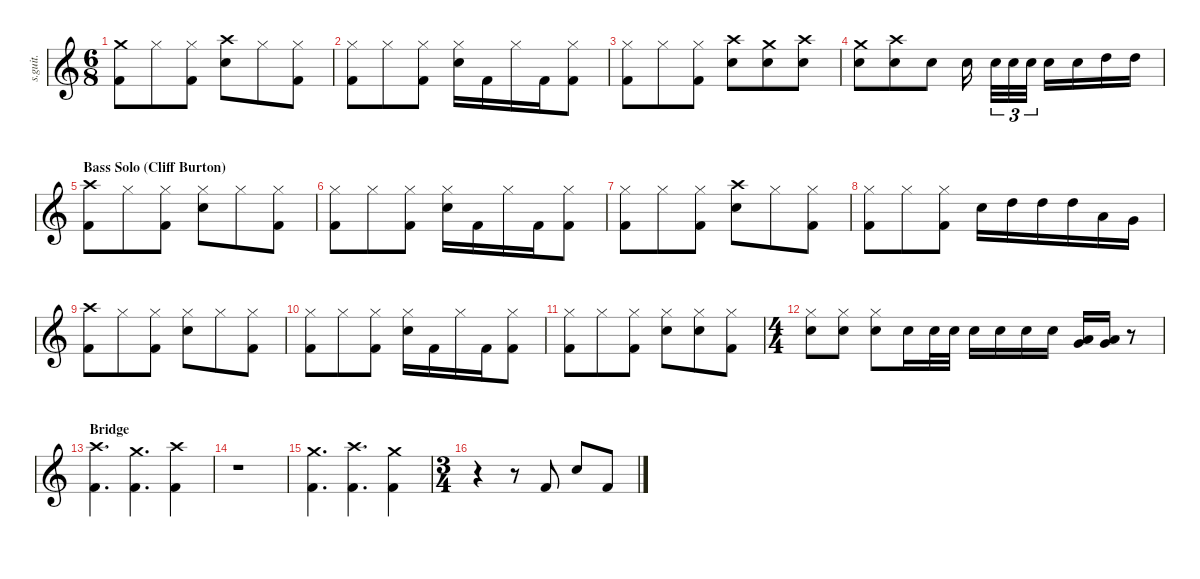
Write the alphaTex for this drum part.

\defaultSystemsLayout 4
\hideDynamics
\bracketExtendMode nobrackets
\track ("Drumkit" "s.guit.") {instrument percussion}
\staff {score}
\articulation defaults
\ts (6 8)
\tempo (78 hide)
\clef g2
\ks c
("Crash medium (hit)" "Kick (hit) 2").8{lyrics (0 "") lyrics (1 "") lyrics (2 "") lyrics (3 "") lyrics (4 "") dy f} "Hi-Hat (closed)".8{lyrics (0 "") lyrics (1 "") lyrics (2 "") lyrics (3 "") lyrics (4 "")} ("Hi-Hat (closed)" "Kick (hit) 2").8{lyrics (0 "") lyrics (1 "") lyrics (2 "") lyrics (3 "") lyrics (4 "")} ("Crash high (hit)" "Snare (hit) 2").8{lyrics (0 "") lyrics (1 "") lyrics (2 "") lyrics (3 "") lyrics (4 "")} "Hi-Hat (closed)".8{lyrics (0 "") lyrics (1 "") lyrics (2 "") lyrics (3 "") lyrics (4 "")} ("Hi-Hat (closed)" "Kick (hit) 2").8{lyrics (0 "") lyrics (1 "") lyrics (2 "") lyrics (3 "") lyrics (4 "")} |
("Hi-Hat (closed)" "Kick (hit) 2").8{lyrics (0 "") lyrics (1 "") lyrics (2 "") lyrics (3 "") lyrics (4 "")} "Hi-Hat (closed)".8{lyrics (0 "") lyrics (1 "") lyrics (2 "") lyrics (3 "") lyrics (4 "")} ("Hi-Hat (closed)" "Kick (hit) 2").8{lyrics (0 "") lyrics (1 "") lyrics (2 "") lyrics (3 "") lyrics (4 "")} ("Hi-Hat (closed)" "Snare (hit) 2").16{lyrics (0 "") lyrics (1 "") lyrics (2 "") lyrics (3 "") lyrics (4 "")} "Kick (hit) 2".16{lyrics (0 "") lyrics (1 "") lyrics (2 "") lyrics (3 "") lyrics (4 "")} "Hi-Hat (closed)".16{lyrics (0 "") lyrics (1 "") lyrics (2 "") lyrics (3 "") lyrics (4 "")} "Kick (hit) 2".16{lyrics (0 "") lyrics (1 "") lyrics (2 "") lyrics (3 "") lyrics (4 "")} ("Hi-Hat (closed)" "Kick (hit) 2").8{lyrics (0 "") lyrics (1 "") lyrics (2 "") lyrics (3 "") lyrics (4 "")} |
("Hi-Hat (closed)" "Kick (hit) 2").8{lyrics (0 "") lyrics (1 "") lyrics (2 "") lyrics (3 "") lyrics (4 "")} "Hi-Hat (closed)".8{lyrics (0 "") lyrics (1 "") lyrics (2 "") lyrics (3 "") lyrics (4 "")} ("Hi-Hat (closed)" "Kick (hit) 2").8{lyrics (0 "") lyrics (1 "") lyrics (2 "") lyrics (3 "") lyrics (4 "")} ("Crash high (hit)" "Snare (hit) 2").8{lyrics (0 "") lyrics (1 "") lyrics (2 "") lyrics (3 "") lyrics (4 "")} ("Crash medium (hit)" "Snare (hit) 2").8{lyrics (0 "") lyrics (1 "") lyrics (2 "") lyrics (3 "") lyrics (4 "")} ("Crash high (hit)" "Snare (hit) 2").8{lyrics (0 "") lyrics (1 "") lyrics (2 "") lyrics (3 "") lyrics (4 "")} |
("Crash medium (hit)" "Snare (hit) 2").8{lyrics (0 "") lyrics (1 "") lyrics (2 "") lyrics (3 "") lyrics (4 "")} ("Crash high (hit)" "Snare (hit) 2").8{lyrics (0 "") lyrics (1 "") lyrics (2 "") lyrics (3 "") lyrics (4 "")} "Snare (hit) 2".8{lyrics (0 "") lyrics (1 "") lyrics (2 "") lyrics (3 "") lyrics (4 "")} "Snare (hit) 2".16{lyrics (0 "") lyrics (1 "") lyrics (2 "") lyrics (3 "") lyrics (4 "")} "Snare (hit) 2".32{tu (3 2) lyrics (0 "") lyrics (1 "") lyrics (2 "") lyrics (3 "") lyrics (4 "")} "Snare (hit) 2".32{tu (3 2) lyrics (0 "") lyrics (1 "") lyrics (2 "") lyrics (3 "") lyrics (4 "")} "Snare (hit) 2".32{tu (3 2) lyrics (0 "") lyrics (1 "") lyrics (2 "") lyrics (3 "") lyrics (4 "")} "Snare (hit) 2".16{lyrics (0 "") lyrics (1 "") lyrics (2 "") lyrics (3 "") lyrics (4 "")} "Snare (hit) 2".16{lyrics (0 "") lyrics (1 "") lyrics (2 "") lyrics (3 "") lyrics (4 "")} "High Tom (hit)".16{lyrics (0 "") lyrics (1 "") lyrics (2 "") lyrics (3 "") lyrics (4 "")} "High Tom (hit)".16{lyrics (0 "") lyrics (1 "") lyrics (2 "") lyrics (3 "") lyrics (4 "")} |
\section ("" "Bass Solo (Cliff Burton)")
("Crash high (hit)" "Kick (hit) 2").8{lyrics (0 "") lyrics (1 "") lyrics (2 "") lyrics (3 "") lyrics (4 "")} "Hi-Hat (closed)".8{lyrics (0 "") lyrics (1 "") lyrics (2 "") lyrics (3 "") lyrics (4 "")} ("Hi-Hat (closed)" "Kick (hit) 2").8{lyrics (0 "") lyrics (1 "") lyrics (2 "") lyrics (3 "") lyrics (4 "")} ("Hi-Hat (closed)" "Snare (hit) 2").8{lyrics (0 "") lyrics (1 "") lyrics (2 "") lyrics (3 "") lyrics (4 "")} "Hi-Hat (closed)".8{lyrics (0 "") lyrics (1 "") lyrics (2 "") lyrics (3 "") lyrics (4 "")} ("Hi-Hat (closed)" "Kick (hit) 2").8{lyrics (0 "") lyrics (1 "") lyrics (2 "") lyrics (3 "") lyrics (4 "")} |
("Hi-Hat (closed)" "Kick (hit) 2").8{lyrics (0 "") lyrics (1 "") lyrics (2 "") lyrics (3 "") lyrics (4 "")} "Hi-Hat (closed)".8{lyrics (0 "") lyrics (1 "") lyrics (2 "") lyrics (3 "") lyrics (4 "")} ("Hi-Hat (closed)" "Kick (hit) 2").8{lyrics (0 "") lyrics (1 "") lyrics (2 "") lyrics (3 "") lyrics (4 "")} ("Hi-Hat (closed)" "Snare (hit) 2").16{lyrics (0 "") lyrics (1 "") lyrics (2 "") lyrics (3 "") lyrics (4 "")} "Kick (hit) 2".16{lyrics (0 "") lyrics (1 "") lyrics (2 "") lyrics (3 "") lyrics (4 "")} "Hi-Hat (closed)".16{lyrics (0 "") lyrics (1 "") lyrics (2 "") lyrics (3 "") lyrics (4 "")} "Kick (hit) 2".16{lyrics (0 "") lyrics (1 "") lyrics (2 "") lyrics (3 "") lyrics (4 "")} ("Hi-Hat (closed)" "Kick (hit) 2").8{lyrics (0 "") lyrics (1 "") lyrics (2 "") lyrics (3 "") lyrics (4 "")} |
("Hi-Hat (closed)" "Kick (hit) 2").8{lyrics (0 "") lyrics (1 "") lyrics (2 "") lyrics (3 "") lyrics (4 "")} "Hi-Hat (closed)".8{lyrics (0 "") lyrics (1 "") lyrics (2 "") lyrics (3 "") lyrics (4 "")} ("Hi-Hat (closed)" "Kick (hit) 2").8{lyrics (0 "") lyrics (1 "") lyrics (2 "") lyrics (3 "") lyrics (4 "")} ("Crash high (hit)" "Snare (hit) 2").8{lyrics (0 "") lyrics (1 "") lyrics (2 "") lyrics (3 "") lyrics (4 "")} "Hi-Hat (closed)".8{lyrics (0 "") lyrics (1 "") lyrics (2 "") lyrics (3 "") lyrics (4 "")} ("Hi-Hat (closed)" "Kick (hit) 2").8{lyrics (0 "") lyrics (1 "") lyrics (2 "") lyrics (3 "") lyrics (4 "")} |
("Hi-Hat (closed)" "Kick (hit) 2").8{lyrics (0 "") lyrics (1 "") lyrics (2 "") lyrics (3 "") lyrics (4 "")} "Hi-Hat (closed)".8{lyrics (0 "") lyrics (1 "") lyrics (2 "") lyrics (3 "") lyrics (4 "")} ("Hi-Hat (closed)" "Kick (hit) 2").8{lyrics (0 "") lyrics (1 "") lyrics (2 "") lyrics (3 "") lyrics (4 "")} "Snare (hit) 2".16{lyrics (0 "") lyrics (1 "") lyrics (2 "") lyrics (3 "") lyrics (4 "")} "High Tom (hit)".16{lyrics (0 "") lyrics (1 "") lyrics (2 "") lyrics (3 "") lyrics (4 "")} "High Tom (hit)".16{lyrics (0 "") lyrics (1 "") lyrics (2 "") lyrics (3 "") lyrics (4 "")} "High Tom (hit)".16{lyrics (0 "") lyrics (1 "") lyrics (2 "") lyrics (3 "") lyrics (4 "")} "Low Tom (hit)".16{lyrics (0 "") lyrics (1 "") lyrics (2 "") lyrics (3 "") lyrics (4 "")} "Very Low Tom (hit)".16{lyrics (0 "") lyrics (1 "") lyrics (2 "") lyrics (3 "") lyrics (4 "")} |
("Crash high (hit)" "Kick (hit) 2").8{lyrics (0 "") lyrics (1 "") lyrics (2 "") lyrics (3 "") lyrics (4 "")} "Hi-Hat (closed)".8{lyrics (0 "") lyrics (1 "") lyrics (2 "") lyrics (3 "") lyrics (4 "")} ("Hi-Hat (closed)" "Kick (hit) 2").8{lyrics (0 "") lyrics (1 "") lyrics (2 "") lyrics (3 "") lyrics (4 "")} ("Hi-Hat (closed)" "Snare (hit) 2").8{lyrics (0 "") lyrics (1 "") lyrics (2 "") lyrics (3 "") lyrics (4 "")} "Hi-Hat (closed)".8{lyrics (0 "") lyrics (1 "") lyrics (2 "") lyrics (3 "") lyrics (4 "")} ("Hi-Hat (closed)" "Kick (hit) 2").8{lyrics (0 "") lyrics (1 "") lyrics (2 "") lyrics (3 "") lyrics (4 "")} |
("Hi-Hat (closed)" "Kick (hit) 2").8{lyrics (0 "") lyrics (1 "") lyrics (2 "") lyrics (3 "") lyrics (4 "")} "Hi-Hat (closed)".8{lyrics (0 "") lyrics (1 "") lyrics (2 "") lyrics (3 "") lyrics (4 "")} ("Hi-Hat (closed)" "Kick (hit) 2").8{lyrics (0 "") lyrics (1 "") lyrics (2 "") lyrics (3 "") lyrics (4 "")} ("Hi-Hat (closed)" "Snare (hit) 2").16{lyrics (0 "") lyrics (1 "") lyrics (2 "") lyrics (3 "") lyrics (4 "")} "Kick (hit) 2".16{lyrics (0 "") lyrics (1 "") lyrics (2 "") lyrics (3 "") lyrics (4 "")} "Hi-Hat (closed)".16{lyrics (0 "") lyrics (1 "") lyrics (2 "") lyrics (3 "") lyrics (4 "")} "Kick (hit) 2".16{lyrics (0 "") lyrics (1 "") lyrics (2 "") lyrics (3 "") lyrics (4 "")} ("Hi-Hat (closed)" "Kick (hit) 2").8{lyrics (0 "") lyrics (1 "") lyrics (2 "") lyrics (3 "") lyrics (4 "")} |
("Hi-Hat (closed)" "Kick (hit) 2").8{lyrics (0 "") lyrics (1 "") lyrics (2 "") lyrics (3 "") lyrics (4 "")} "Hi-Hat (closed)".8{lyrics (0 "") lyrics (1 "") lyrics (2 "") lyrics (3 "") lyrics (4 "")} ("Hi-Hat (closed)" "Kick (hit) 2").8{lyrics (0 "") lyrics (1 "") lyrics (2 "") lyrics (3 "") lyrics (4 "")} ("Hi-Hat (closed)" "Snare (hit) 2").8{lyrics (0 "") lyrics (1 "") lyrics (2 "") lyrics (3 "") lyrics (4 "")} ("Hi-Hat (closed)" "Snare (hit) 2").8{lyrics (0 "") lyrics (1 "") lyrics (2 "") lyrics (3 "") lyrics (4 "")} ("Hi-Hat (closed)" "Kick (hit) 2").8{lyrics (0 "") lyrics (1 "") lyrics (2 "") lyrics (3 "") lyrics (4 "")} |
\ts (4 4)
\beaming (8 2 2 2 2)
("Hi-Hat (closed)" "Snare (hit) 2").8{lyrics (0 "") lyrics (1 "") lyrics (2 "") lyrics (3 "") lyrics (4 "")} ("Hi-Hat (closed)" "Snare (hit) 2").8{lyrics (0 "") lyrics (1 "") lyrics (2 "") lyrics (3 "") lyrics (4 "")} ("Hi-Hat (closed)" "Snare (hit) 2").8{lyrics (0 "") lyrics (1 "") lyrics (2 "") lyrics (3 "") lyrics (4 "")} "Snare (hit) 2".16{lyrics (0 "") lyrics (1 "") lyrics (2 "") lyrics (3 "") lyrics (4 "")} "Snare (hit) 2".32{lyrics (0 "") lyrics (1 "") lyrics (2 "") lyrics (3 "") lyrics (4 "")} "Snare (hit) 2".32{lyrics (0 "") lyrics (1 "") lyrics (2 "") lyrics (3 "") lyrics (4 "")} "Snare (hit) 2".16{lyrics (0 "") lyrics (1 "") lyrics (2 "") lyrics (3 "") lyrics (4 "")} "Snare (hit) 2".16{lyrics (0 "") lyrics (1 "") lyrics (2 "") lyrics (3 "") lyrics (4 "")} "Snare (hit) 2".16{lyrics (0 "") lyrics (1 "") lyrics (2 "") lyrics (3 "") lyrics (4 "")} "Snare (hit) 2".16{lyrics (0 "") lyrics (1 "") lyrics (2 "") lyrics (3 "") lyrics (4 "")} ("Low Floor Tom (hit)" "Very Low Tom (hit)").16{lyrics (0 "") lyrics (1 "") lyrics (2 "") lyrics (3 "") lyrics (4 "")} ("Low Floor Tom (hit)" "Very Low Tom (hit)").16{lyrics (0 "") lyrics (1 "") lyrics (2 "") lyrics (3 "") lyrics (4 "")} r.8 |
\section ("" "Bridge")
\tempo (130 hide)
("Crash high (hit)" "Kick (hit) 2").4{d lyrics (0 "") lyrics (1 "") lyrics (2 "") lyrics (3 "") lyrics (4 "")} ("Crash medium (hit)" "Kick (hit) 2").4{d lyrics (0 "") lyrics (1 "") lyrics (2 "") lyrics (3 "") lyrics (4 "")} ("Crash high (hit)" "Kick (hit) 2").4{lyrics (0 "") lyrics (1 "") lyrics (2 "") lyrics (3 "") lyrics (4 "")} |
r.1 |
("Crash medium (hit)" "Kick (hit) 2").4{d lyrics (0 "") lyrics (1 "") lyrics (2 "") lyrics (3 "") lyrics (4 "")} ("Crash high (hit)" "Kick (hit) 2").4{d lyrics (0 "") lyrics (1 "") lyrics (2 "") lyrics (3 "") lyrics (4 "")} ("Crash medium (hit)" "Kick (hit) 2").4{lyrics (0 "") lyrics (1 "") lyrics (2 "") lyrics (3 "") lyrics (4 "")} |
\ts (3 4)
\beaming (8 2 2 2 2)
r.4 r.8 "Kick (hit) 2".8{lyrics (0 "") lyrics (1 "") lyrics (2 "") lyrics (3 "") lyrics (4 "")} "Snare (hit) 2".8{lyrics (0 "") lyrics (1 "") lyrics (2 "") lyrics (3 "") lyrics (4 "")} "Kick (hit) 2".8{lyrics (0 "") lyrics (1 "") lyrics (2 "") lyrics (3 "") lyrics (4 "")}
